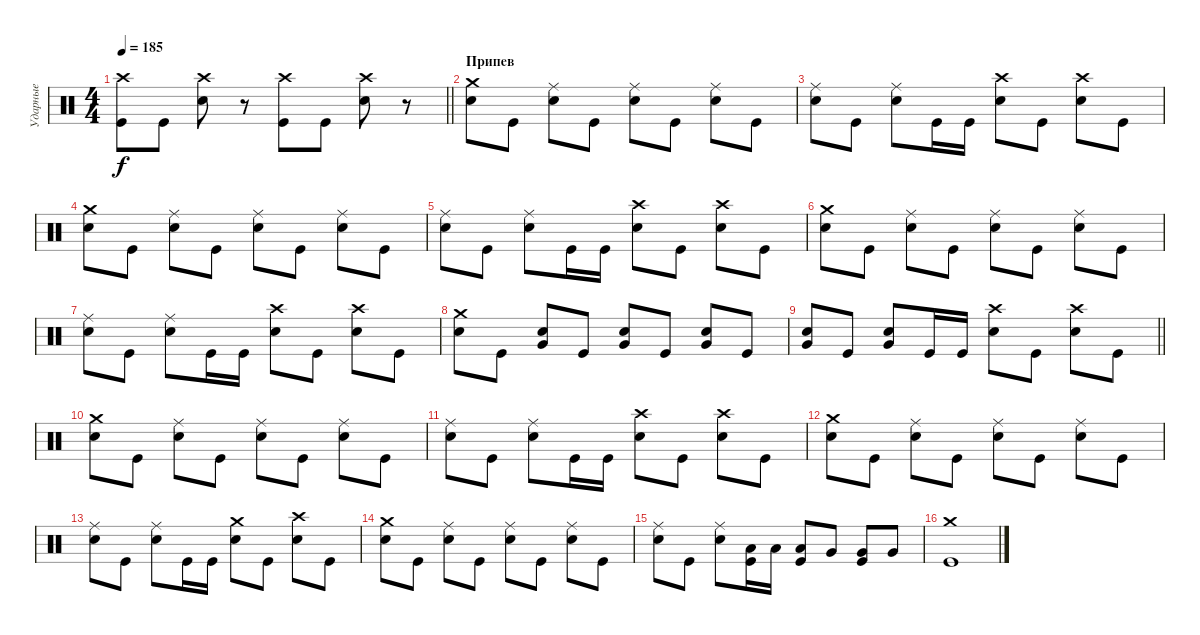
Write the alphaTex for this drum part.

\track ("Ударные" "Ударные") {instrument percussion}
\staff {score}
\articulation defaults
\ts (4 4)
\tempo 185
\clef neutral
\barLineRight lightlight
\ks c
("Crash high (hit)" "Kick (hit)").8{dy f} "Kick (hit)".8 ("Crash high (hit)" "Electric Snare (hit)").8 r.8 ("Crash high (hit)" "Kick (hit)").8 "Kick (hit)".8 ("Crash high (hit)" "Electric Snare (hit)").8 r.8 |
\section ("" "Припев")
("Crash medium (hit)" "Electric Snare (hit)").8 "Kick (hit)".8 ("Ride (middle)" "Electric Snare (hit)").8 "Kick (hit)".8 ("Ride (middle)" "Electric Snare (hit)").8 "Kick (hit)".8 ("Ride (middle)" "Electric Snare (hit)").8 "Kick (hit)".8 |
("Ride (middle)" "Electric Snare (hit)").8 "Kick (hit)".8 ("Ride (middle)" "Electric Snare (hit)").8 "Kick (hit)".16 "Kick (hit)".16 ("Crash high (hit)" "Electric Snare (hit)").8 "Kick (hit)".8 ("Crash high (hit)" "Electric Snare (hit)").8 "Kick (hit)".8 |
("Crash medium (hit)" "Electric Snare (hit)").8 "Kick (hit)".8 ("Ride (middle)" "Electric Snare (hit)").8 "Kick (hit)".8 ("Ride (middle)" "Electric Snare (hit)").8 "Kick (hit)".8 ("Ride (middle)" "Electric Snare (hit)").8 "Kick (hit)".8 |
("Ride (middle)" "Electric Snare (hit)").8 "Kick (hit)".8 ("Ride (middle)" "Electric Snare (hit)").8 "Kick (hit)".16 "Kick (hit)".16 ("Crash high (hit)" "Electric Snare (hit)").8 "Kick (hit)".8 ("Crash high (hit)" "Electric Snare (hit)").8 "Kick (hit)".8 |
("Crash medium (hit)" "Electric Snare (hit)").8 "Kick (hit)".8 ("Ride (middle)" "Electric Snare (hit)").8 "Kick (hit)".8 ("Ride (middle)" "Electric Snare (hit)").8 "Kick (hit)".8 ("Ride (middle)" "Electric Snare (hit)").8 "Kick (hit)".8 |
("Ride (middle)" "Electric Snare (hit)").8 "Kick (hit)".8 ("Ride (middle)" "Electric Snare (hit)").8 "Kick (hit)".16 "Kick (hit)".16 ("Crash high (hit)" "Electric Snare (hit)").8 "Kick (hit)".8 ("Crash high (hit)" "Electric Snare (hit)").8 "Kick (hit)".8 |
("Crash medium (hit)" "Electric Snare (hit)").8 "Kick (hit)".8 ("Very Low Tom (hit)" "Electric Snare (hit)").8 "Kick (hit)".8 ("Very Low Tom (hit)" "Electric Snare (hit)").8 "Kick (hit)".8 ("Very Low Tom (hit)" "Electric Snare (hit)").8 "Kick (hit)".8 |
\barLineRight lightlight
("Very Low Tom (hit)" "Electric Snare (hit)").8 "Kick (hit)".8 ("Very Low Tom (hit)" "Electric Snare (hit)").8 "Kick (hit)".16 "Kick (hit)".16 ("Crash high (hit)" "Electric Snare (hit)").8 "Kick (hit)".8 ("Crash high (hit)" "Electric Snare (hit)").8 "Kick (hit)".8 |
\section ("" " ")
("Crash medium (hit)" "Electric Snare (hit)").8 "Kick (hit)".8 ("Ride (middle)" "Electric Snare (hit)").8 "Kick (hit)".8 ("Ride (middle)" "Electric Snare (hit)").8 "Kick (hit)".8 ("Ride (middle)" "Electric Snare (hit)").8 "Kick (hit)".8 |
("Ride (middle)" "Electric Snare (hit)").8 "Kick (hit)".8 ("Ride (middle)" "Electric Snare (hit)").8 "Kick (hit)".16 "Kick (hit)".16 ("Crash high (hit)" "Electric Snare (hit)").8 "Kick (hit)".8 ("Crash high (hit)" "Electric Snare (hit)").8 "Kick (hit)".8 |
("Crash medium (hit)" "Electric Snare (hit)").8 "Kick (hit)".8 ("Ride (middle)" "Electric Snare (hit)").8 "Kick (hit)".8 ("Ride (middle)" "Electric Snare (hit)").8 "Kick (hit)".8 ("Ride (middle)" "Electric Snare (hit)").8 "Kick (hit)".8 |
("Ride (middle)" "Electric Snare (hit)").8 "Kick (hit)".8 ("Ride (middle)" "Electric Snare (hit)").8 "Kick (hit)".16 "Kick (hit)".16 ("Crash medium (hit)" "Electric Snare (hit)").8 "Kick (hit)".8 ("Crash high (hit)" "Electric Snare (hit)").8 "Kick (hit)".8 |
("Crash medium (hit)" "Electric Snare (hit)").8 "Kick (hit)".8 ("Ride (middle)" "Electric Snare (hit)").8 "Kick (hit)".8 ("Ride (middle)" "Electric Snare (hit)").8 "Kick (hit)".8 ("Ride (middle)" "Electric Snare (hit)").8 "Kick (hit)".8 |
("Ride (middle)" "Electric Snare (hit)").8 "Kick (hit)".8 ("Ride (middle)" "Electric Snare (hit)").8 ("Low Tom (hit)" "Kick (hit)").16 "Low Tom (hit)".16 ("Low Tom (hit)" "Kick (hit)").8 "Very Low Tom (hit)".8 ("Very Low Tom (hit)" "Kick (hit)").8 "Very Low Tom (hit)".8 |
("Crash medium (hit)" "Kick (hit)").1
